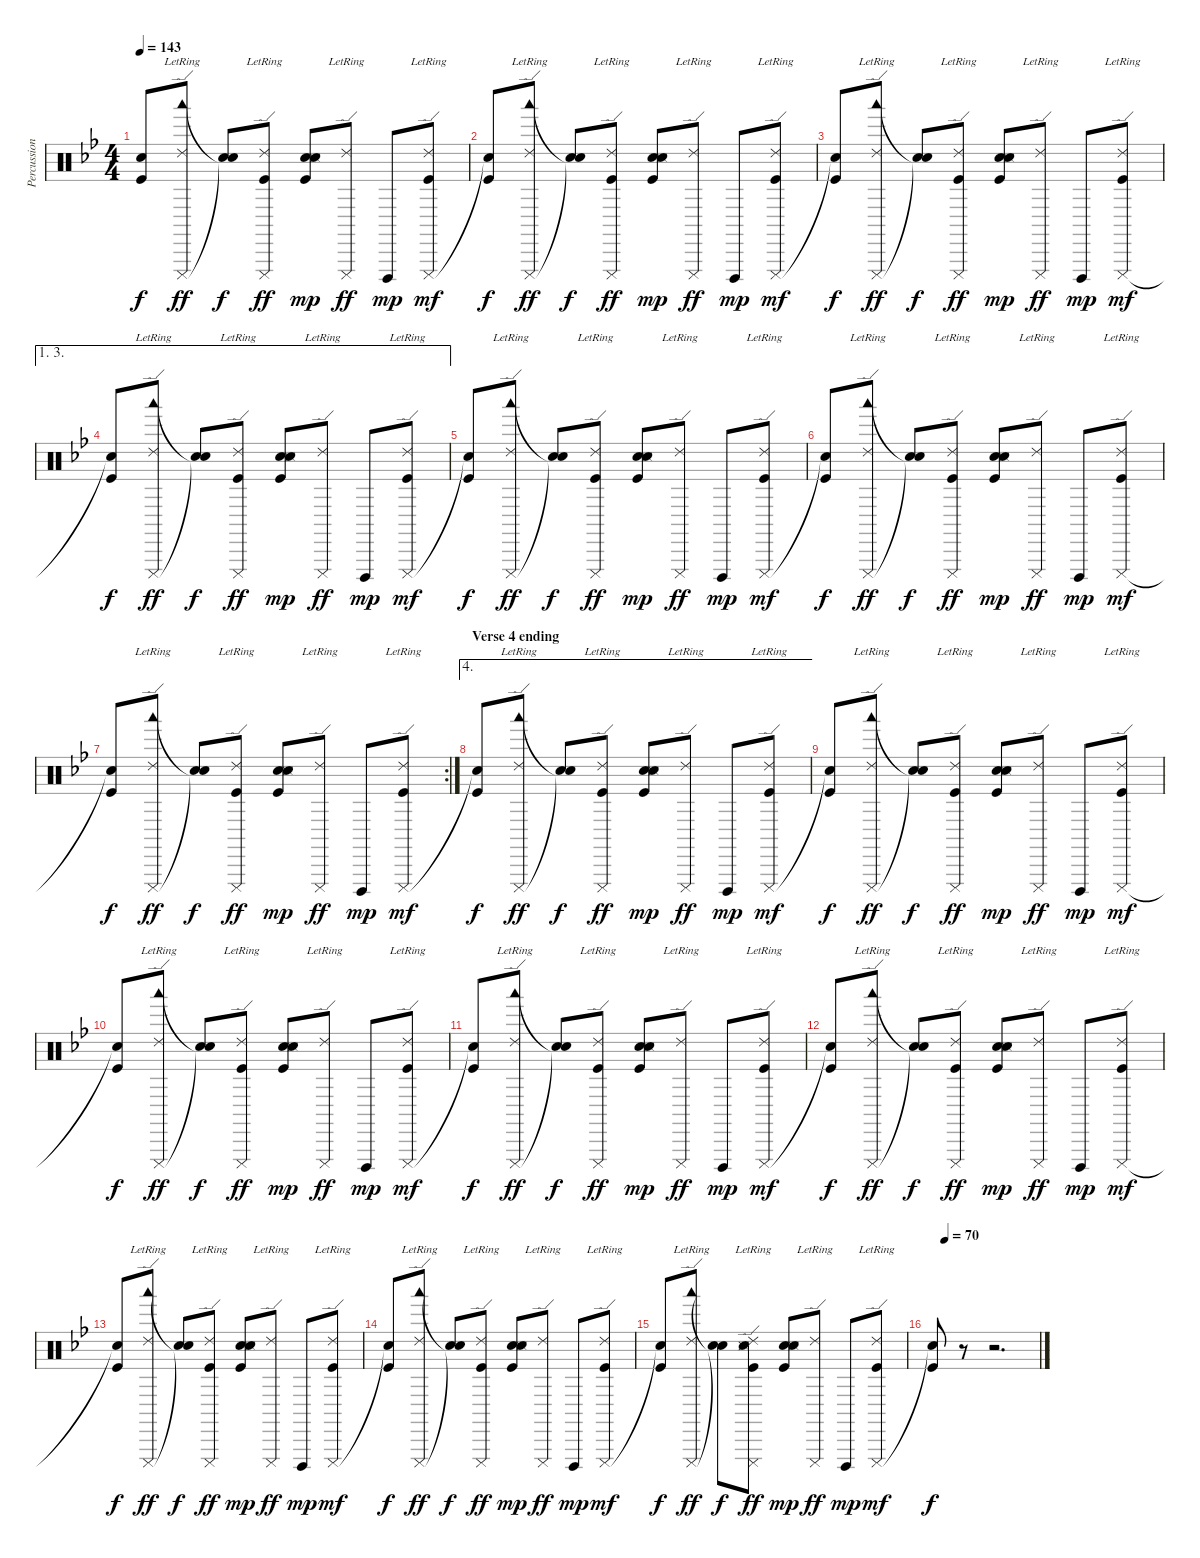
\track ("Percussion" "Percussion") {instrument percussion}
\staff {score}
\articulation defaults
\ts (4 4)
\tempo 143
\clef neutral
\ks gminor
("Snare (hit)"{t} "Kick (hit)").8{dy f} ("Cuica (mute)" "Woodblock low (hit)" "Ride (edge) 2"{lr}).8{dy ff} ("Snare (hit)"{t} "Snare (hit)"{t}).8{dy f} ("Cuica (mute)" "Ride (edge) 2"{lr} "Kick (hit)").8{dy ff} ("Snare (hit) 2" "Snare (side stick) 3" "Snare (hit) 2" "Kick (hit)").8{dy mp} ("Cuica (mute)" "Ride (edge) 2"{lr}).8{dy ff} "Cuica (open)".8{dy mp} ("Cuica (mute)" "Ride (edge) 2"{lr} "Kick (hit)").8{dy mf} |
("Snare (hit)"{t} "Kick (hit)").8{dy f} ("Cuica (mute)" "Woodblock low (hit)" "Ride (edge) 2"{lr}).8{dy ff} ("Snare (hit)"{t} "Snare (hit)"{t}).8{dy f} ("Cuica (mute)" "Ride (edge) 2"{lr} "Kick (hit)").8{dy ff} ("Snare (hit) 2" "Snare (side stick) 3" "Snare (hit) 2" "Kick (hit)").8{dy mp} ("Cuica (mute)" "Ride (edge) 2"{lr}).8{dy ff} "Cuica (open)".8{dy mp} ("Cuica (mute)" "Ride (edge) 2"{lr} "Kick (hit)").8{dy mf} |
("Snare (hit)"{t} "Kick (hit)").8{dy f} ("Cuica (mute)" "Woodblock low (hit)" "Ride (edge) 2"{lr}).8{dy ff} ("Snare (hit)"{t} "Snare (hit)"{t}).8{dy f} ("Cuica (mute)" "Ride (edge) 2"{lr} "Kick (hit)").8{dy ff} ("Snare (hit) 2" "Snare (side stick) 3" "Snare (hit) 2" "Kick (hit)").8{dy mp} ("Cuica (mute)" "Ride (edge) 2"{lr}).8{dy ff} "Cuica (open)".8{dy mp} ("Cuica (mute)" "Ride (edge) 2"{lr} "Kick (hit)").8{dy mf} |
\ae (1 3)
("Snare (hit)"{t} "Kick (hit)").8{dy f} ("Cuica (mute)" "Woodblock low (hit)" "Ride (edge) 2"{lr}).8{dy ff} ("Snare (hit)"{t} "Snare (hit)"{t}).8{dy f} ("Cuica (mute)" "Ride (edge) 2"{lr} "Kick (hit)").8{dy ff} ("Snare (hit) 2" "Snare (side stick) 3" "Snare (hit) 2" "Kick (hit)").8{dy mp} ("Cuica (mute)" "Ride (edge) 2"{lr}).8{dy ff} "Cuica (open)".8{dy mp} ("Cuica (mute)" "Ride (edge) 2"{lr} "Kick (hit)").8{dy mf} |
("Snare (hit)"{t} "Kick (hit)").8{dy f} ("Cuica (mute)" "Woodblock low (hit)" "Ride (edge) 2"{lr}).8{dy ff} ("Snare (hit)"{t} "Snare (hit)"{t}).8{dy f} ("Cuica (mute)" "Ride (edge) 2"{lr} "Kick (hit)").8{dy ff} ("Snare (hit) 2" "Snare (side stick) 3" "Snare (hit) 2" "Kick (hit)").8{dy mp} ("Cuica (mute)" "Ride (edge) 2"{lr}).8{dy ff} "Cuica (open)".8{dy mp} ("Cuica (mute)" "Ride (edge) 2"{lr} "Kick (hit)").8{dy mf} |
("Snare (hit)"{t} "Kick (hit)").8{dy f} ("Cuica (mute)" "Woodblock low (hit)" "Ride (edge) 2"{lr}).8{dy ff} ("Snare (hit)"{t} "Snare (hit)"{t}).8{dy f} ("Cuica (mute)" "Ride (edge) 2"{lr} "Kick (hit)").8{dy ff} ("Snare (hit) 2" "Snare (side stick) 3" "Snare (hit) 2" "Kick (hit)").8{dy mp} ("Cuica (mute)" "Ride (edge) 2"{lr}).8{dy ff} "Cuica (open)".8{dy mp} ("Cuica (mute)" "Ride (edge) 2"{lr} "Kick (hit)").8{dy mf} |
\rc 2
("Snare (hit)"{t} "Kick (hit)").8{dy f} ("Cuica (mute)" "Woodblock low (hit)" "Ride (edge) 2"{lr}).8{dy ff} ("Snare (hit)"{t} "Snare (hit)"{t}).8{dy f} ("Cuica (mute)" "Ride (edge) 2"{lr} "Kick (hit)").8{dy ff} ("Snare (hit) 2" "Snare (side stick) 3" "Snare (hit) 2" "Kick (hit)").8{dy mp} ("Cuica (mute)" "Ride (edge) 2"{lr}).8{dy ff} "Cuica (open)".8{dy mp} ("Cuica (mute)" "Ride (edge) 2"{lr} "Kick (hit)").8{dy mf} |
\ae 4
\section ("" "Verse 4 ending")
("Snare (hit)"{t} "Kick (hit)").8{dy f} ("Cuica (mute)" "Woodblock low (hit)" "Ride (edge) 2"{lr}).8{dy ff} ("Snare (hit)"{t} "Snare (hit)"{t}).8{dy f} ("Cuica (mute)" "Ride (edge) 2"{lr} "Kick (hit)").8{dy ff} ("Snare (hit) 2" "Snare (side stick) 3" "Snare (hit) 2" "Kick (hit)").8{dy mp} ("Cuica (mute)" "Ride (edge) 2"{lr}).8{dy ff} "Cuica (open)".8{dy mp} ("Cuica (mute)" "Ride (edge) 2"{lr} "Kick (hit)").8{dy mf} |
("Snare (hit)"{t} "Kick (hit)").8{dy f} ("Cuica (mute)" "Woodblock low (hit)" "Ride (edge) 2"{lr}).8{dy ff} ("Snare (hit)"{t} "Snare (hit)"{t}).8{dy f} ("Cuica (mute)" "Ride (edge) 2"{lr} "Kick (hit)").8{dy ff} ("Snare (hit) 2" "Snare (side stick) 3" "Snare (hit) 2" "Kick (hit)").8{dy mp} ("Cuica (mute)" "Ride (edge) 2"{lr}).8{dy ff} "Cuica (open)".8{dy mp} ("Cuica (mute)" "Ride (edge) 2"{lr} "Kick (hit)").8{dy mf} |
("Snare (hit)"{t} "Kick (hit)").8{dy f} ("Cuica (mute)" "Woodblock low (hit)" "Ride (edge) 2"{lr}).8{dy ff} ("Snare (hit)"{t} "Snare (hit)"{t}).8{dy f} ("Cuica (mute)" "Ride (edge) 2"{lr} "Kick (hit)").8{dy ff} ("Snare (hit) 2" "Snare (side stick) 3" "Snare (hit) 2" "Kick (hit)").8{dy mp} ("Cuica (mute)" "Ride (edge) 2"{lr}).8{dy ff} "Cuica (open)".8{dy mp} ("Cuica (mute)" "Ride (edge) 2"{lr} "Kick (hit)").8{dy mf} |
("Snare (hit)"{t} "Kick (hit)").8{dy f} ("Cuica (mute)" "Woodblock low (hit)" "Ride (edge) 2"{lr}).8{dy ff} ("Snare (hit)"{t} "Snare (hit)"{t}).8{dy f} ("Cuica (mute)" "Ride (edge) 2"{lr} "Kick (hit)").8{dy ff} ("Snare (hit) 2" "Snare (side stick) 3" "Snare (hit) 2" "Kick (hit)").8{dy mp} ("Cuica (mute)" "Ride (edge) 2"{lr}).8{dy ff} "Cuica (open)".8{dy mp} ("Cuica (mute)" "Ride (edge) 2"{lr} "Kick (hit)").8{dy mf} |
("Snare (hit)"{t} "Kick (hit)").8{dy f} ("Cuica (mute)" "Woodblock low (hit)" "Ride (edge) 2"{lr}).8{dy ff} ("Snare (hit)"{t} "Snare (hit)"{t}).8{dy f} ("Cuica (mute)" "Ride (edge) 2"{lr} "Kick (hit)").8{dy ff} ("Snare (hit) 2" "Snare (side stick) 3" "Snare (hit) 2" "Kick (hit)").8{dy mp} ("Cuica (mute)" "Ride (edge) 2"{lr}).8{dy ff} "Cuica (open)".8{dy mp} ("Cuica (mute)" "Ride (edge) 2"{lr} "Kick (hit)").8{dy mf} |
("Snare (hit)"{t} "Kick (hit)").8{dy f} ("Cuica (mute)" "Woodblock low (hit)" "Ride (edge) 2"{lr}).8{dy ff} ("Snare (hit)"{t} "Snare (hit)"{t}).8{dy f} ("Cuica (mute)" "Ride (edge) 2"{lr} "Kick (hit)").8{dy ff} ("Snare (hit) 2" "Snare (side stick) 3" "Snare (hit) 2" "Kick (hit)").8{dy mp} ("Cuica (mute)" "Ride (edge) 2"{lr}).8{dy ff} "Cuica (open)".8{dy mp} ("Cuica (mute)" "Ride (edge) 2"{lr} "Kick (hit)").8{dy mf} |
("Snare (hit)"{t} "Kick (hit)").8{dy f} ("Cuica (mute)" "Woodblock low (hit)" "Ride (edge) 2"{lr}).8{dy ff} ("Snare (hit)"{t} "Snare (hit)"{t}).8{dy f} ("Cuica (mute)" "Ride (edge) 2"{lr} "Kick (hit)").8{dy ff} ("Snare (hit) 2" "Snare (side stick) 3" "Snare (hit) 2" "Kick (hit)").8{dy mp} ("Cuica (mute)" "Ride (edge) 2"{lr}).8{dy ff} "Cuica (open)".8{dy mp} ("Cuica (mute)" "Ride (edge) 2"{lr} "Kick (hit)").8{dy mf} |
("Snare (hit)"{t} "Kick (hit)").8{dy f} ("Cuica (mute)" "Woodblock low (hit)" "Ride (edge) 2"{lr}).8{dy ff} ("Snare (hit)"{t} "Snare (hit)"{t}).8{dy f} ("Cuica (mute)" "Snare (side stick) 3" "Snare (hit) 2" "Ride (edge) 2"{lr} "Kick (hit)").8{dy ff} ("Snare (hit) 2" "Snare (side stick) 3" "Snare (hit) 2" "Kick (hit)").8{dy mp} ("Cuica (mute)" "Ride (edge) 2"{lr}).8{dy ff} "Cuica (open)".8{dy mp} ("Cuica (mute)" "Ride (edge) 2"{lr} "Kick (hit)").8{dy mf} |
\tempo (70 0.125)
("Snare (hit)"{t} "Kick (hit)").8{dy f} r.8 r.2{d}
